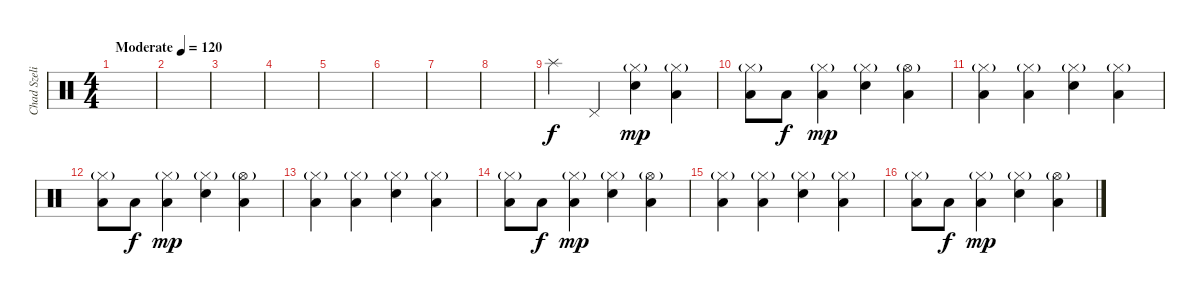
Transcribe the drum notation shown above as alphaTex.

\track ("Chad Szeliga (batteria)" "Chad Szeli") {instrument percussion}
\staff {score}
\articulation defaults
\ts (4 4)
\tempo (120 "Moderate")
\clef neutral
\ks c
|
|
|
|
|
|
|
|
"Splash (hit)".4 "Pedal Hi-Hat (hit)".4 ("Snare (hit) 2" "Hi-Hat (closed)"{g}).4{dy mp} ("Low Floor Tom (hit)" "Hi-Hat (closed)"{g}).4 |
("Low Floor Tom (hit)" "Hi-Hat (closed)"{g}).8 "Low Floor Tom (hit)".8{dy f} ("Low Floor Tom (hit)" "Hi-Hat (closed)"{g}).4{dy mp} ("Snare (hit) 2" "Hi-Hat (closed)"{g}).4 ("Low Floor Tom (hit)" "Hi-Hat (open)"{g}).4 |
("Low Floor Tom (hit)" "Hi-Hat (closed)"{g}).4 ("Low Floor Tom (hit)" "Hi-Hat (closed)"{g}).4 ("Snare (hit) 2" "Hi-Hat (closed)"{g}).4 ("Low Floor Tom (hit)" "Hi-Hat (closed)"{g}).4 |
("Low Floor Tom (hit)" "Hi-Hat (closed)"{g}).8 "Low Floor Tom (hit)".8{dy f} ("Low Floor Tom (hit)" "Hi-Hat (closed)"{g}).4{dy mp} ("Snare (hit) 2" "Hi-Hat (closed)"{g}).4 ("Low Floor Tom (hit)" "Hi-Hat (open)"{g}).4 |
("Low Floor Tom (hit)" "Hi-Hat (closed)"{g}).4 ("Low Floor Tom (hit)" "Hi-Hat (closed)"{g}).4 ("Snare (hit) 2" "Hi-Hat (closed)"{g}).4 ("Low Floor Tom (hit)" "Hi-Hat (closed)"{g}).4 |
("Low Floor Tom (hit)" "Hi-Hat (closed)"{g}).8 "Low Floor Tom (hit)".8{dy f} ("Low Floor Tom (hit)" "Hi-Hat (closed)"{g}).4{dy mp} ("Snare (hit) 2" "Hi-Hat (closed)"{g}).4 ("Low Floor Tom (hit)" "Hi-Hat (open)"{g}).4 |
("Low Floor Tom (hit)" "Hi-Hat (closed)"{g}).4 ("Low Floor Tom (hit)" "Hi-Hat (closed)"{g}).4 ("Snare (hit) 2" "Hi-Hat (closed)"{g}).4 ("Low Floor Tom (hit)" "Hi-Hat (closed)"{g}).4 |
("Low Floor Tom (hit)" "Hi-Hat (closed)"{g}).8 "Low Floor Tom (hit)".8{dy f} ("Low Floor Tom (hit)" "Hi-Hat (closed)"{g}).4{dy mp} ("Snare (hit) 2" "Hi-Hat (closed)"{g}).4 ("Low Floor Tom (hit)" "Hi-Hat (open)"{g}).4
